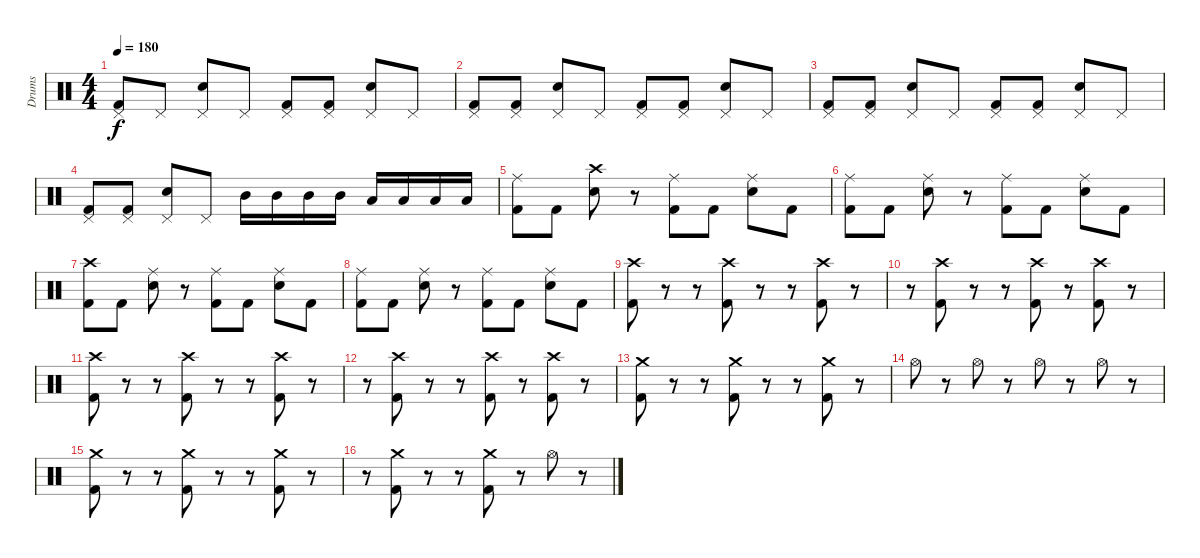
\track ("Drums" "Drums") {instrument percussion}
\staff {score}
\articulation defaults
\ts (4 4)
\tempo 180
\clef neutral
\ks c
("Pedal Hi-Hat (hit)" "Kick (hit) 2").8{dy f} "Pedal Hi-Hat (hit)".8 ("Pedal Hi-Hat (hit)" "Snare (hit) 2").8 "Pedal Hi-Hat (hit)".8 ("Pedal Hi-Hat (hit)" "Kick (hit) 2").8 ("Pedal Hi-Hat (hit)" "Kick (hit) 2").8 ("Pedal Hi-Hat (hit)" "Snare (hit) 2").8 "Pedal Hi-Hat (hit)".8 |
("Pedal Hi-Hat (hit)" "Kick (hit) 2").8 ("Pedal Hi-Hat (hit)" "Kick (hit) 2").8 ("Pedal Hi-Hat (hit)" "Snare (hit) 2").8 "Pedal Hi-Hat (hit)".8 ("Pedal Hi-Hat (hit)" "Kick (hit) 2").8 ("Pedal Hi-Hat (hit)" "Kick (hit) 2").8 ("Pedal Hi-Hat (hit)" "Snare (hit) 2").8 "Pedal Hi-Hat (hit)".8 |
("Pedal Hi-Hat (hit)" "Kick (hit) 2").8 ("Pedal Hi-Hat (hit)" "Kick (hit) 2").8 ("Pedal Hi-Hat (hit)" "Snare (hit) 2").8 "Pedal Hi-Hat (hit)".8 ("Pedal Hi-Hat (hit)" "Kick (hit) 2").8 ("Pedal Hi-Hat (hit)" "Kick (hit) 2").8 ("Pedal Hi-Hat (hit)" "Snare (hit) 2").8 "Pedal Hi-Hat (hit)".8 |
("Pedal Hi-Hat (hit)" "Kick (hit) 2").8 ("Pedal Hi-Hat (hit)" "Kick (hit) 2").8 ("Pedal Hi-Hat (hit)" "Snare (hit) 2").8 "Pedal Hi-Hat (hit)".8 "Mid Tom (hit)".16 "Mid Tom (hit)".16 "Mid Tom (hit)".16 "Mid Tom (hit)".16 "Low Tom (hit)".16 "Low Tom (hit)".16 "Low Tom (hit)".16 "Low Tom (hit)".16 |
("Ride (middle)" "Kick (hit) 2").8 "Kick (hit) 2".8 ("Crash high (hit)" "Snare (hit) 2").8 r.8 ("Ride (middle)" "Kick (hit) 2").8 "Kick (hit) 2".8 ("Ride (middle)" "Snare (hit) 2").8 "Kick (hit) 2".8 |
("Ride (middle)" "Kick (hit) 2").8 "Kick (hit) 2".8 ("Ride (middle)" "Snare (hit) 2").8 r.8 ("Ride (middle)" "Kick (hit) 2").8 "Kick (hit) 2".8 ("Ride (middle)" "Snare (hit) 2").8 "Kick (hit) 2".8 |
("Crash high (hit)" "Kick (hit) 2").8 "Kick (hit) 2".8 ("Ride (middle)" "Snare (hit) 2").8 r.8 ("Ride (middle)" "Kick (hit) 2").8 "Kick (hit) 2".8 ("Ride (middle)" "Snare (hit) 2").8 "Kick (hit) 2".8 |
("Ride (middle)" "Kick (hit) 2").8 "Kick (hit) 2".8 ("Ride (middle)" "Snare (hit) 2").8 r.8 ("Ride (middle)" "Kick (hit) 2").8 "Kick (hit) 2".8 ("Ride (middle)" "Snare (hit) 2").8 "Kick (hit) 2".8 |
("Crash high (hit)" "Kick (hit) 2").8 r.8 r.8 ("Crash high (hit)" "Kick (hit) 2").8 r.8 r.8 ("Crash high (hit)" "Kick (hit) 2").8 r.8 |
r.8 ("Crash high (hit)" "Kick (hit) 2").8 r.8 r.8 ("Crash high (hit)" "Kick (hit) 2").8 r.8 ("Crash high (hit)" "Kick (hit) 2").8 r.8 |
("Crash high (hit)" "Kick (hit) 2").8 r.8 r.8 ("Crash high (hit)" "Kick (hit) 2").8 r.8 r.8 ("Crash high (hit)" "Kick (hit) 2").8 r.8 |
r.8 ("Crash high (hit)" "Kick (hit) 2").8 r.8 r.8 ("Crash high (hit)" "Kick (hit) 2").8 r.8 ("Crash high (hit)" "Kick (hit) 2").8 r.8 |
("Crash medium (hit)" "Kick (hit) 2").8 r.8 r.8 ("Crash medium (hit)" "Kick (hit) 2").8 r.8 r.8 ("Crash medium (hit)" "Kick (hit) 2").8 r.8 |
"Hi-Hat (open)".8 r.8 "Hi-Hat (open)".8 r.8 "Hi-Hat (open)".8 r.8 "Hi-Hat (open)".8 r.8 |
("Crash medium (hit)" "Kick (hit) 2").8 r.8 r.8 ("Crash medium (hit)" "Kick (hit) 2").8 r.8 r.8 ("Crash medium (hit)" "Kick (hit) 2").8 r.8 |
r.8 ("Crash medium (hit)" "Kick (hit) 2").8 r.8 r.8 ("Crash medium (hit)" "Kick (hit) 2").8 r.8 "Hi-Hat (open)".8 r.8
